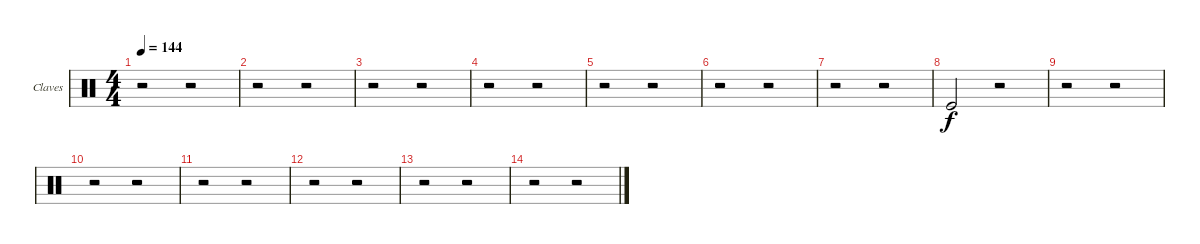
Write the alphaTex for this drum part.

\bracketExtendMode groupsimilarinstruments
\firstSystemTrackNameOrientation horizontal
\otherSystemsTrackNameOrientation horizontal
\track ("Claves" "Claves") {instrument percussion}
\staff {score}
\articulation defaults
\ts (4 4)
\tempo 144
\clef neutral
\ks c
r.2{dy f} r.2 |
r.2 r.2 |
r.2 r.2 |
r.2 r.2 |
r.2 r.2 |
r.2 r.2 |
r.2 r.2 |
"Kick (hit)".2 r.2 |
r.2 r.2 |
r.2 r.2 |
r.2 r.2 |
r.2 r.2 |
r.2 r.2 |
r.2 r.2
